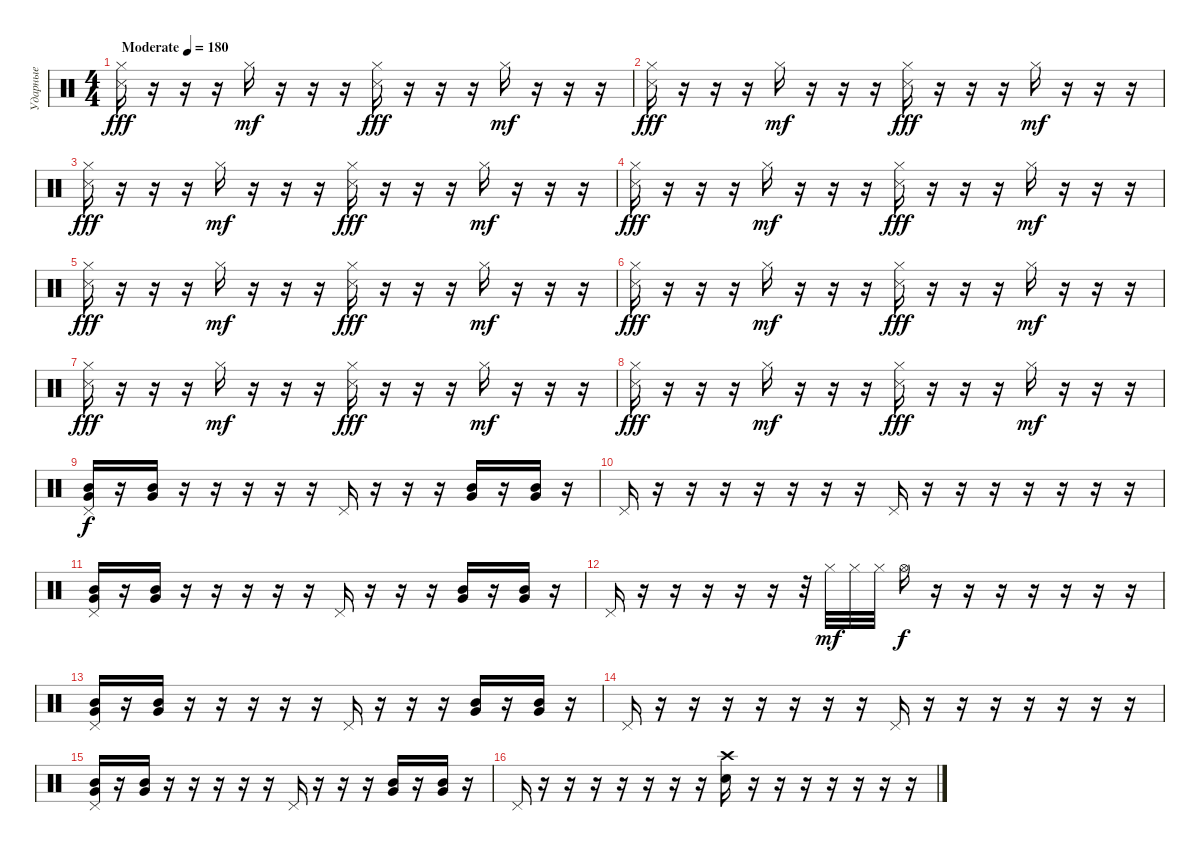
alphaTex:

\track ("Ударные" "Ударные") {instrument percussion}
\staff {score}
\articulation defaults
\ts (4 4)
\tempo (180 "Moderate")
\clef neutral
\ks c
("Hi-Hat (closed)" "Snare (side stick) 3").16{dy fff} r.16 r.16 r.16 "Hi-Hat (closed)".16{dy mf} r.16 r.16 r.16 ("Hi-Hat (closed)" "Snare (side stick) 3").16{dy fff} r.16 r.16 r.16 "Hi-Hat (closed)".16{dy mf} r.16 r.16 r.16 |
("Hi-Hat (closed)" "Snare (side stick) 3").16{dy fff} r.16 r.16 r.16 "Hi-Hat (closed)".16{dy mf} r.16 r.16 r.16 ("Hi-Hat (closed)" "Snare (side stick) 3").16{dy fff} r.16 r.16 r.16 "Hi-Hat (closed)".16{dy mf} r.16 r.16 r.16 |
("Hi-Hat (closed)" "Snare (side stick) 3").16{dy fff} r.16 r.16 r.16 "Hi-Hat (closed)".16{dy mf} r.16 r.16 r.16 ("Hi-Hat (closed)" "Snare (side stick) 3").16{dy fff} r.16 r.16 r.16 "Hi-Hat (closed)".16{dy mf} r.16 r.16 r.16 |
("Hi-Hat (closed)" "Snare (side stick) 3").16{dy fff} r.16 r.16 r.16 "Hi-Hat (closed)".16{dy mf} r.16 r.16 r.16 ("Hi-Hat (closed)" "Snare (side stick) 3").16{dy fff} r.16 r.16 r.16 "Hi-Hat (closed)".16{dy mf} r.16 r.16 r.16 |
("Hi-Hat (closed)" "Snare (side stick) 3").16{dy fff} r.16 r.16 r.16 "Hi-Hat (closed)".16{dy mf} r.16 r.16 r.16 ("Hi-Hat (closed)" "Snare (side stick) 3").16{dy fff} r.16 r.16 r.16 "Hi-Hat (closed)".16{dy mf} r.16 r.16 r.16 |
("Hi-Hat (closed)" "Snare (side stick) 3").16{dy fff} r.16 r.16 r.16 "Hi-Hat (closed)".16{dy mf} r.16 r.16 r.16 ("Hi-Hat (closed)" "Snare (side stick) 3").16{dy fff} r.16 r.16 r.16 "Hi-Hat (closed)".16{dy mf} r.16 r.16 r.16 |
("Hi-Hat (closed)" "Snare (side stick) 3").16{dy fff} r.16 r.16 r.16 "Hi-Hat (closed)".16{dy mf} r.16 r.16 r.16 ("Hi-Hat (closed)" "Snare (side stick) 3").16{dy fff} r.16 r.16 r.16 "Hi-Hat (closed)".16{dy mf} r.16 r.16 r.16 |
("Hi-Hat (closed)" "Snare (side stick) 3").16{dy fff} r.16 r.16 r.16 "Hi-Hat (closed)".16{dy mf} r.16 r.16 r.16 ("Hi-Hat (closed)" "Snare (side stick) 3").16{dy fff} r.16 r.16 r.16 "Hi-Hat (closed)".16{dy mf} r.16 r.16 r.16 |
("Pedal Hi-Hat (hit)" "Mid Tom (hit)" "Very Low Tom (hit)").16{dy f} r.16 ("Mid Tom (hit)" "Very Low Tom (hit)").16 r.16 r.16 r.16 r.16 r.16 "Pedal Hi-Hat (hit)".16 r.16 r.16 r.16 ("Very Low Tom (hit)" "Mid Tom (hit)").16 r.16 ("Mid Tom (hit)" "Very Low Tom (hit)").16 r.16 |
"Pedal Hi-Hat (hit)".16 r.16 r.16 r.16 r.16 r.16 r.16 r.16 "Pedal Hi-Hat (hit)".16 r.16 r.16 r.16 r.16 r.16 r.16 r.16 |
("Pedal Hi-Hat (hit)" "Mid Tom (hit)" "Very Low Tom (hit)").16 r.16 ("Mid Tom (hit)" "Very Low Tom (hit)").16 r.16 r.16 r.16 r.16 r.16 "Pedal Hi-Hat (hit)".16 r.16 r.16 r.16 ("Very Low Tom (hit)" "Mid Tom (hit)").16 r.16 ("Mid Tom (hit)" "Very Low Tom (hit)").16 r.16 |
"Pedal Hi-Hat (hit)".16 r.16 r.16 r.16 r.16 r.16 r.32 "Hi-Hat (closed)".32{dy mf} "Hi-Hat (closed)".32 "Hi-Hat (closed)".32 "Hi-Hat (open)".16{dy f} r.16 r.16 r.16 r.16 r.16 r.16 r.16 |
("Pedal Hi-Hat (hit)" "Mid Tom (hit)" "Very Low Tom (hit)").16 r.16 ("Mid Tom (hit)" "Very Low Tom (hit)").16 r.16 r.16 r.16 r.16 r.16 "Pedal Hi-Hat (hit)".16 r.16 r.16 r.16 ("Very Low Tom (hit)" "Mid Tom (hit)").16 r.16 ("Mid Tom (hit)" "Very Low Tom (hit)").16 r.16 |
"Pedal Hi-Hat (hit)".16 r.16 r.16 r.16 r.16 r.16 r.16 r.16 "Pedal Hi-Hat (hit)".16 r.16 r.16 r.16 r.16 r.16 r.16 r.16 |
("Pedal Hi-Hat (hit)" "Mid Tom (hit)" "Very Low Tom (hit)").16 r.16 ("Mid Tom (hit)" "Very Low Tom (hit)").16 r.16 r.16 r.16 r.16 r.16 "Pedal Hi-Hat (hit)".16 r.16 r.16 r.16 ("Very Low Tom (hit)" "Mid Tom (hit)").16 r.16 ("Mid Tom (hit)" "Very Low Tom (hit)").16 r.16 |
"Pedal Hi-Hat (hit)".16 r.16 r.16 r.16 r.16 r.16 r.16 r.16 ("Crash high (hit)" "Electric Snare (hit)").16 r.16 r.16 r.16 r.16 r.16 r.16 r.16
